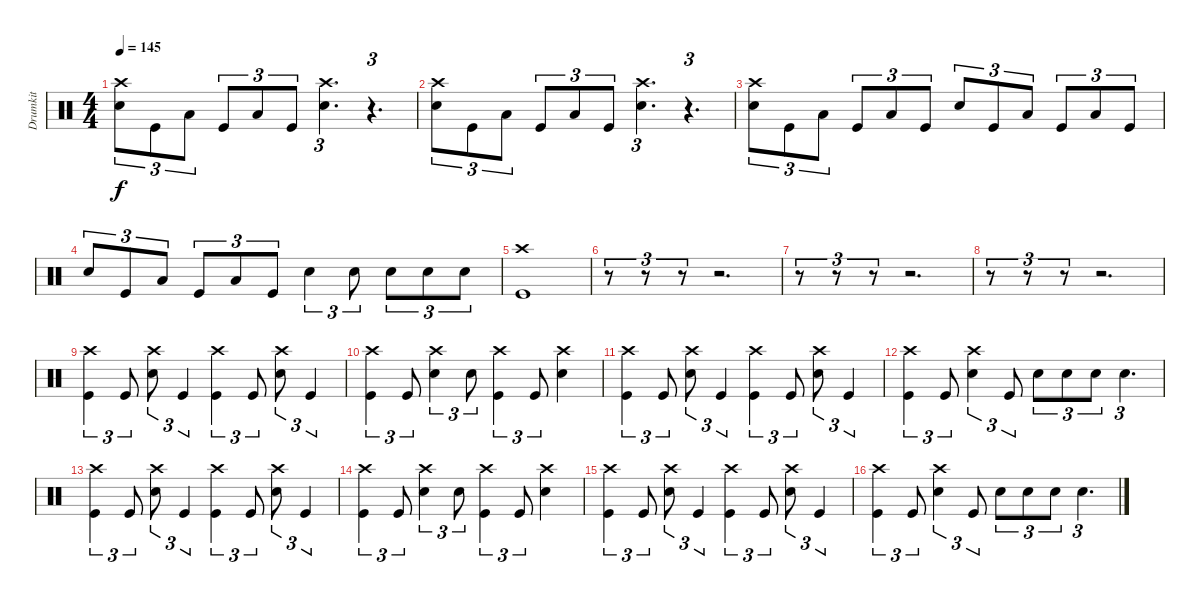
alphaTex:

\track ("Drumkit" "Drumkit") {instrument percussion}
\staff {score}
\articulation defaults
\ts (4 4)
\tempo 145
\clef neutral
\ks c
("Crash high (hit)" "Snare (hit) 2").8{tu (3 2) dy f} "Kick (hit)".8{tu (3 2)} "Low Tom (hit)".8{tu (3 2)} "Kick (hit)".8{tu (3 2)} "Low Tom (hit)".8{tu (3 2)} "Kick (hit)".8{tu (3 2)} ("Crash high (hit)" "Snare (hit) 2").4{d tu (3 2)} r.4{d tu (3 2)} |
("Crash high (hit)" "Snare (hit) 2").8{tu (3 2)} "Kick (hit)".8{tu (3 2)} "Low Tom (hit)".8{tu (3 2)} "Kick (hit)".8{tu (3 2)} "Low Tom (hit)".8{tu (3 2)} "Kick (hit)".8{tu (3 2)} ("Crash high (hit)" "Snare (hit) 2").4{d tu (3 2)} r.4{d tu (3 2)} |
("Crash high (hit)" "Snare (hit) 2").8{tu (3 2)} "Kick (hit)".8{tu (3 2)} "Low Tom (hit)".8{tu (3 2)} "Kick (hit)".8{tu (3 2)} "Low Tom (hit)".8{tu (3 2)} "Kick (hit)".8{tu (3 2)} "Snare (hit) 2".8{tu (3 2)} "Kick (hit)".8{tu (3 2)} "Low Tom (hit)".8{tu (3 2)} "Kick (hit)".8{tu (3 2)} "Low Tom (hit)".8{tu (3 2)} "Kick (hit)".8{tu (3 2)} |
"Snare (hit) 2".8{tu (3 2)} "Kick (hit)".8{tu (3 2)} "Low Tom (hit)".8{tu (3 2)} "Kick (hit)".8{tu (3 2)} "Low Tom (hit)".8{tu (3 2)} "Kick (hit)".8{tu (3 2)} "Snare (hit) 2".4{tu (3 2)} "Snare (hit) 2".8{tu (3 2)} "Snare (hit) 2".8{tu (3 2)} "Snare (hit) 2".8{tu (3 2)} "Snare (hit) 2".8{tu (3 2)} |
("Crash high (hit)" "Kick (hit)").1 |
r.8{tu (3 2)} r.8{tu (3 2)} r.8{tu (3 2)} r.2{d} |
r.8{tu (3 2)} r.8{tu (3 2)} r.8{tu (3 2)} r.2{d} |
r.8{tu (3 2)} r.8{tu (3 2)} r.8{tu (3 2)} r.2{d} |
("Crash high (hit)" "Kick (hit)").4{tu (3 2)} "Kick (hit)".8{tu (3 2)} ("Crash high (hit)" "Snare (hit) 2").8{tu (3 2)} "Kick (hit)".4{tu (3 2)} ("Crash high (hit)" "Kick (hit)").4{tu (3 2)} "Kick (hit)".8{tu (3 2)} ("Crash high (hit)" "Snare (hit) 2").8{tu (3 2)} "Kick (hit)".4{tu (3 2)} |
("Crash high (hit)" "Kick (hit)").4{tu (3 2)} "Kick (hit)".8{tu (3 2)} ("Crash high (hit)" "Snare (hit) 2").4{tu (3 2)} "Snare (hit) 2".8{tu (3 2)} ("Crash high (hit)" "Kick (hit)").4{tu (3 2)} "Kick (hit)".8{tu (3 2)} ("Crash high (hit)" "Snare (hit) 2").4 |
("Crash high (hit)" "Kick (hit)").4{tu (3 2)} "Kick (hit)".8{tu (3 2)} ("Crash high (hit)" "Snare (hit) 2").8{tu (3 2)} "Kick (hit)".4{tu (3 2)} ("Crash high (hit)" "Kick (hit)").4{tu (3 2)} "Kick (hit)".8{tu (3 2)} ("Crash high (hit)" "Snare (hit) 2").8{tu (3 2)} "Kick (hit)".4{tu (3 2)} |
("Crash high (hit)" "Kick (hit)").4{tu (3 2)} "Kick (hit)".8{tu (3 2)} ("Crash high (hit)" "Snare (hit) 2").4{tu (3 2)} "Kick (hit)".8{tu (3 2)} "Snare (hit) 2".8{tu (3 2)} "Snare (hit) 2".8{tu (3 2)} "Snare (hit) 2".8{tu (3 2)} "Snare (hit) 2".4{d tu (3 2)} |
("Crash high (hit)" "Kick (hit)").4{tu (3 2)} "Kick (hit)".8{tu (3 2)} ("Crash high (hit)" "Snare (hit) 2").8{tu (3 2)} "Kick (hit)".4{tu (3 2)} ("Crash high (hit)" "Kick (hit)").4{tu (3 2)} "Kick (hit)".8{tu (3 2)} ("Crash high (hit)" "Snare (hit) 2").8{tu (3 2)} "Kick (hit)".4{tu (3 2)} |
("Crash high (hit)" "Kick (hit)").4{tu (3 2)} "Kick (hit)".8{tu (3 2)} ("Crash high (hit)" "Snare (hit) 2").4{tu (3 2)} "Snare (hit) 2".8{tu (3 2)} ("Crash high (hit)" "Kick (hit)").4{tu (3 2)} "Kick (hit)".8{tu (3 2)} ("Crash high (hit)" "Snare (hit) 2").4 |
("Crash high (hit)" "Kick (hit)").4{tu (3 2)} "Kick (hit)".8{tu (3 2)} ("Crash high (hit)" "Snare (hit) 2").8{tu (3 2)} "Kick (hit)".4{tu (3 2)} ("Crash high (hit)" "Kick (hit)").4{tu (3 2)} "Kick (hit)".8{tu (3 2)} ("Crash high (hit)" "Snare (hit) 2").8{tu (3 2)} "Kick (hit)".4{tu (3 2)} |
("Crash high (hit)" "Kick (hit)").4{tu (3 2)} "Kick (hit)".8{tu (3 2)} ("Crash high (hit)" "Snare (hit) 2").4{tu (3 2)} "Kick (hit)".8{tu (3 2)} "Snare (hit) 2".8{tu (3 2)} "Snare (hit) 2".8{tu (3 2)} "Snare (hit) 2".8{tu (3 2)} "Snare (hit) 2".4{d tu (3 2)}
